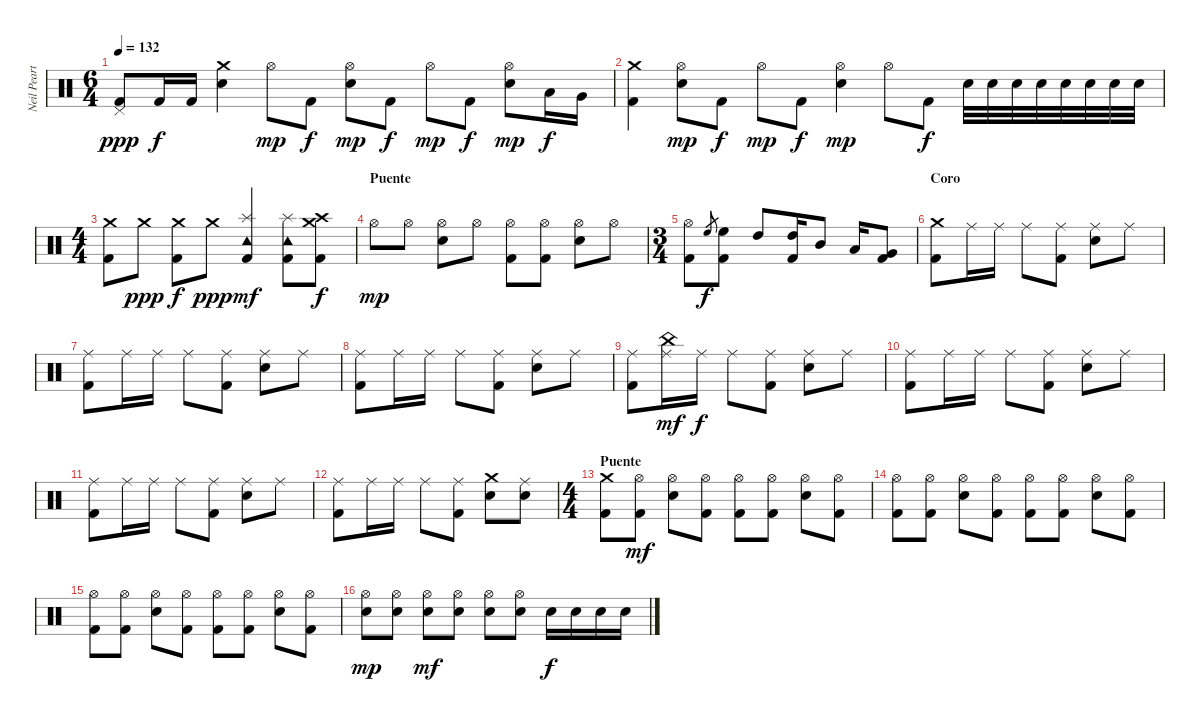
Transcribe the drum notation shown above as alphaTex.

\track ("Neil Peart" "Neil Peart") {instrument percussion}
\staff {score}
\articulation defaults
\ts (6 4)
\tempo 132
\clef neutral
\ks c
("Pedal Hi-Hat (hit)" "Kick (hit) 2").8{dy ppp} "Kick (hit) 2".16{dy f} "Kick (hit) 2".16 ("Crash medium (hit)" "Electric Snare (hit)").4 "Hi-Hat (open)".8{dy mp} "Kick (hit) 2".8{dy f} ("Hi-Hat (open)" "Electric Snare (hit)").8{dy mp} "Kick (hit) 2".8{dy f} "Hi-Hat (open)".8{dy mp} "Kick (hit) 2".8{dy f} ("Hi-Hat (open)" "Electric Snare (hit)").8{dy mp} "Low Tom (hit)".16{dy f} "Very Low Tom (hit)".16 |
("Crash medium (hit)" "Kick (hit) 2").4 ("Hi-Hat (open)" "Electric Snare (hit)").8{dy mp} "Kick (hit) 2".8{dy f} "Hi-Hat (open)".8{dy mp} "Kick (hit) 2".8{dy f} ("Hi-Hat (open)" "Electric Snare (hit)").4{dy mp} "Hi-Hat (open)".8 "Kick (hit) 2".8{dy f} "Electric Snare (hit)".32 "Electric Snare (hit)".32 "Electric Snare (hit)".32 "Electric Snare (hit)".32 "Electric Snare (hit)".32 "Electric Snare (hit)".32 "Electric Snare (hit)".32 "Electric Snare (hit)".32 |
\ts (4 4)
("Crash medium (hit)" "Kick (hit) 2").8 "Crash medium (hit)".8{dy ppp} ("Crash medium (hit)" "Kick (hit) 2").8{dy f} "Crash medium (hit)".8{dy ppp} ("Splash (hit)" "Tambourine (hit)" "Kick (hit) 2").4{dy mf} ("Splash (hit)" "Tambourine (hit)" "Kick (hit) 2").8 ("Crash medium (hit)" "Crash high (hit)" "Kick (hit) 2").8{dy f} |
\section ("" "Puente")
"Hi-Hat (open)".8{dy mp} "Hi-Hat (open)".8 ("Hi-Hat (open)" "Electric Snare (hit)").8 "Hi-Hat (open)".8 ("Hi-Hat (open)" "Kick (hit) 2").8 ("Hi-Hat (open)" "Kick (hit) 2").8 ("Hi-Hat (open)" "Electric Snare (hit)").8 "Hi-Hat (open)".8 |
\ts (3 4)
("Hi-Hat (open)" "Kick (hit) 2").8 "High Floor Tom (hit)".8{gr dy f} ("High Floor Tom (hit)" "Kick (hit) 2").8 "High Tom (hit)".8 ("High Tom (hit)" "Kick (hit) 2").16 "Mid Tom (hit)".8 "Low Tom (hit)".16 ("Very Low Tom (hit)" "Kick (hit) 2").8 |
\section ("" "Coro")
("Crash medium (hit)" "Kick (hit) 2").8 "Ride (middle)".16 "Ride (middle)".16 "Ride (middle)".8 ("Ride (middle)" "Kick (hit) 2").8 ("Ride (middle)" "Electric Snare (hit)").8 "Ride (middle)".8 |
("Ride (middle)" "Kick (hit) 2").8 "Ride (middle)".16 "Ride (middle)".16 "Ride (middle)".8 ("Ride (middle)" "Kick (hit) 2").8 ("Ride (middle)" "Electric Snare (hit)").8 "Ride (middle)".8 |
("Ride (middle)" "Kick (hit) 2").8 "Ride (middle)".16 "Ride (middle)".16 "Ride (middle)".8 ("Ride (middle)" "Kick (hit) 2").8 ("Ride (middle)" "Electric Snare (hit)").8 "Ride (middle)".8 |
("Ride (middle)" "Kick (hit) 2").8 ("Ride (middle)" "China (hit)").16{dy mf} "Ride (middle)".16{dy f} "Ride (middle)".8 ("Ride (middle)" "Kick (hit) 2").8 ("Ride (middle)" "Electric Snare (hit)").8 "Ride (middle)".8 |
("Ride (middle)" "Kick (hit) 2").8 "Ride (middle)".16 "Ride (middle)".16 "Ride (middle)".8 ("Ride (middle)" "Kick (hit) 2").8 ("Ride (middle)" "Electric Snare (hit)").8 "Ride (middle)".8 |
("Ride (middle)" "Kick (hit) 2").8 "Ride (middle)".16 "Ride (middle)".16 "Ride (middle)".8 ("Ride (middle)" "Kick (hit) 2").8 ("Ride (middle)" "Electric Snare (hit)").8 "Ride (middle)".8 |
("Ride (middle)" "Kick (hit) 2").8 "Ride (middle)".16 "Ride (middle)".16 "Ride (middle)".8 ("Ride (middle)" "Kick (hit) 2").8 ("Crash medium (hit)" "Electric Snare (hit)").8 ("Ride (middle)" "Electric Snare (hit)").8 |
\ts (4 4)
\section ("" "Puente")
("Crash medium (hit)" "Kick (hit) 2").8 ("Hi-Hat (open)" "Kick (hit) 2").8{dy mf} ("Hi-Hat (open)" "Electric Snare (hit)").8 ("Hi-Hat (open)" "Kick (hit) 2").8 ("Hi-Hat (open)" "Kick (hit) 2").8 ("Hi-Hat (open)" "Kick (hit) 2").8 ("Hi-Hat (open)" "Electric Snare (hit)").8 ("Hi-Hat (open)" "Kick (hit) 2").8 |
("Hi-Hat (open)" "Kick (hit) 2").8 ("Hi-Hat (open)" "Kick (hit) 2").8 ("Hi-Hat (open)" "Electric Snare (hit)").8 ("Hi-Hat (open)" "Kick (hit) 2").8 ("Hi-Hat (open)" "Kick (hit) 2").8 ("Hi-Hat (open)" "Kick (hit) 2").8 ("Hi-Hat (open)" "Electric Snare (hit)").8 ("Hi-Hat (open)" "Kick (hit) 2").8 |
("Hi-Hat (open)" "Kick (hit) 2").8 ("Hi-Hat (open)" "Kick (hit) 2").8 ("Hi-Hat (open)" "Electric Snare (hit)").8 ("Hi-Hat (open)" "Kick (hit) 2").8 ("Hi-Hat (open)" "Kick (hit) 2").8 ("Hi-Hat (open)" "Kick (hit) 2").8 ("Hi-Hat (open)" "Electric Snare (hit)").8 ("Hi-Hat (open)" "Kick (hit) 2").8 |
("Hi-Hat (open)" "Electric Snare (hit)").8{dy mp} ("Hi-Hat (open)" "Electric Snare (hit)").8 ("Hi-Hat (open)" "Electric Snare (hit)").8{dy mf} ("Hi-Hat (open)" "Electric Snare (hit)").8 ("Hi-Hat (open)" "Electric Snare (hit)").8 ("Hi-Hat (open)" "Electric Snare (hit)").8 "Electric Snare (hit)".16{dy f} "Electric Snare (hit)".16 "Electric Snare (hit)".16 "Electric Snare (hit)".16
